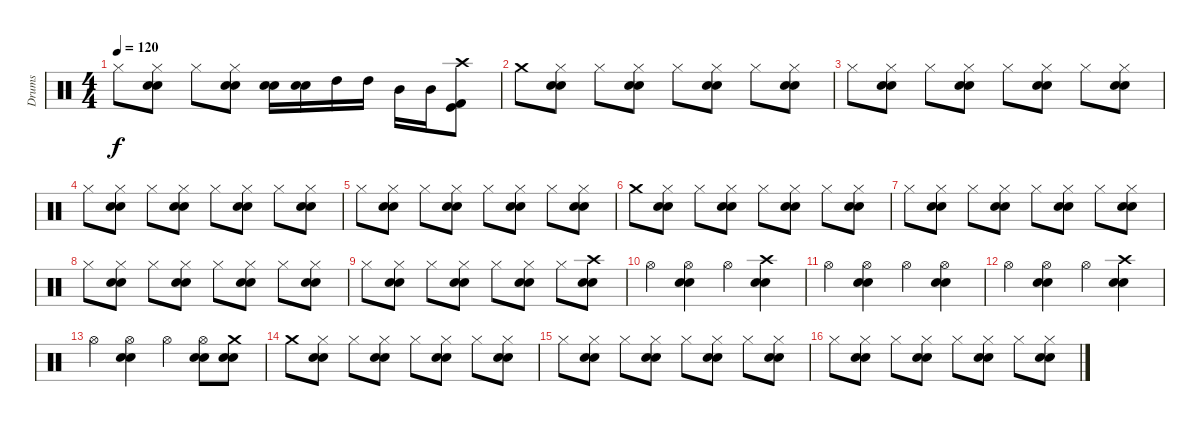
\track ("Drums" "Drums") {instrument percussion}
\staff {score}
\articulation defaults
\ts (4 4)
\tempo 120
\clef neutral
\ks c "Hi-Hat (closed)".8{dy f}
("Hi-Hat (closed)" "Electric Snare (hit)" "Snare (hit) 2").8 "Hi-Hat (closed)".8 ("Hi-Hat (closed)" "Electric Snare (hit)" "Snare (hit) 2").8 ("Electric Snare (hit)" "Snare (hit) 2").16 ("Electric Snare (hit)" "Snare (hit) 2").16 "High Tom (hit)".16 "High Tom (hit)".16 "Mid Tom (hit)".16 "Mid Tom (hit)".16 ("Kick (hit) 2" "Kick (hit)" "Crash high (hit)").8 |
"Crash medium (hit)".8 ("Hi-Hat (closed)" "Electric Snare (hit)" "Snare (hit) 2").8 "Hi-Hat (closed)".8 ("Hi-Hat (closed)" "Electric Snare (hit)" "Snare (hit) 2").8 "Hi-Hat (closed)".8 ("Hi-Hat (closed)" "Electric Snare (hit)" "Snare (hit) 2").8 "Hi-Hat (closed)".8 ("Hi-Hat (closed)" "Electric Snare (hit)" "Snare (hit) 2").8 |
"Hi-Hat (closed)".8 ("Hi-Hat (closed)" "Electric Snare (hit)" "Snare (hit) 2").8 "Hi-Hat (closed)".8 ("Hi-Hat (closed)" "Electric Snare (hit)" "Snare (hit) 2").8 "Hi-Hat (closed)".8 ("Hi-Hat (closed)" "Electric Snare (hit)" "Snare (hit) 2").8 "Hi-Hat (closed)".8 ("Hi-Hat (closed)" "Electric Snare (hit)" "Snare (hit) 2").8 |
"Hi-Hat (closed)".8 ("Hi-Hat (closed)" "Electric Snare (hit)" "Snare (hit) 2").8 "Hi-Hat (closed)".8 ("Hi-Hat (closed)" "Electric Snare (hit)" "Snare (hit) 2").8 "Hi-Hat (closed)".8 ("Hi-Hat (closed)" "Electric Snare (hit)" "Snare (hit) 2").8 "Hi-Hat (closed)".8 ("Hi-Hat (closed)" "Electric Snare (hit)" "Snare (hit) 2").8 |
"Hi-Hat (closed)".8 ("Hi-Hat (closed)" "Electric Snare (hit)" "Snare (hit) 2").8 "Hi-Hat (closed)".8 ("Hi-Hat (closed)" "Electric Snare (hit)" "Snare (hit) 2").8 "Hi-Hat (closed)".8 ("Hi-Hat (closed)" "Electric Snare (hit)" "Snare (hit) 2").8 "Hi-Hat (closed)".8 ("Hi-Hat (closed)" "Electric Snare (hit)" "Snare (hit) 2").8 |
"Crash medium (hit)".8 ("Hi-Hat (closed)" "Electric Snare (hit)" "Snare (hit) 2").8 "Hi-Hat (closed)".8 ("Hi-Hat (closed)" "Electric Snare (hit)" "Snare (hit) 2").8 "Hi-Hat (closed)".8 ("Hi-Hat (closed)" "Electric Snare (hit)" "Snare (hit) 2").8 "Hi-Hat (closed)".8 ("Hi-Hat (closed)" "Electric Snare (hit)" "Snare (hit) 2").8 |
"Hi-Hat (closed)".8 ("Hi-Hat (closed)" "Electric Snare (hit)" "Snare (hit) 2").8 "Hi-Hat (closed)".8 ("Hi-Hat (closed)" "Electric Snare (hit)" "Snare (hit) 2").8 "Hi-Hat (closed)".8 ("Hi-Hat (closed)" "Electric Snare (hit)" "Snare (hit) 2").8 "Hi-Hat (closed)".8 ("Hi-Hat (closed)" "Electric Snare (hit)" "Snare (hit) 2").8 |
"Hi-Hat (closed)".8 ("Hi-Hat (closed)" "Electric Snare (hit)" "Snare (hit) 2").8 "Hi-Hat (closed)".8 ("Hi-Hat (closed)" "Electric Snare (hit)" "Snare (hit) 2").8 "Hi-Hat (closed)".8 ("Hi-Hat (closed)" "Electric Snare (hit)" "Snare (hit) 2").8 "Hi-Hat (closed)".8 ("Hi-Hat (closed)" "Electric Snare (hit)" "Snare (hit) 2").8 |
"Hi-Hat (closed)".8 ("Hi-Hat (closed)" "Electric Snare (hit)" "Snare (hit) 2").8 "Hi-Hat (closed)".8 ("Hi-Hat (closed)" "Electric Snare (hit)" "Snare (hit) 2").8 "Hi-Hat (closed)".8 ("Hi-Hat (closed)" "Electric Snare (hit)" "Snare (hit) 2").8 "Hi-Hat (closed)".8 ("Crash high (hit)" "Electric Snare (hit)" "Snare (hit) 2").8 |
"Hi-Hat (open)".4 ("Hi-Hat (open)" "Electric Snare (hit)" "Snare (hit) 2").4 "Hi-Hat (open)".4 ("Crash high (hit)" "Electric Snare (hit)" "Snare (hit) 2").4 |
"Hi-Hat (open)".4 ("Hi-Hat (open)" "Electric Snare (hit)" "Snare (hit) 2").4 "Hi-Hat (open)".4 ("Hi-Hat (open)" "Electric Snare (hit)" "Snare (hit) 2").4 |
"Hi-Hat (open)".4 ("Hi-Hat (open)" "Electric Snare (hit)" "Snare (hit) 2").4 "Hi-Hat (open)".4 ("Crash high (hit)" "Electric Snare (hit)" "Snare (hit) 2").4 |
"Hi-Hat (open)".4 ("Hi-Hat (open)" "Electric Snare (hit)" "Snare (hit) 2").4 "Hi-Hat (open)".4 ("Hi-Hat (open)" "Electric Snare (hit)" "Snare (hit) 2").8 ("Crash medium (hit)" "Electric Snare (hit)" "Snare (hit) 2").8 |
"Crash medium (hit)".8 ("Hi-Hat (closed)" "Electric Snare (hit)" "Snare (hit) 2").8 "Hi-Hat (closed)".8 ("Hi-Hat (closed)" "Electric Snare (hit)" "Snare (hit) 2").8 "Hi-Hat (closed)".8 ("Hi-Hat (closed)" "Electric Snare (hit)" "Snare (hit) 2").8 "Hi-Hat (closed)".8 ("Hi-Hat (closed)" "Electric Snare (hit)" "Snare (hit) 2").8 |
"Hi-Hat (closed)".8 ("Hi-Hat (closed)" "Electric Snare (hit)" "Snare (hit) 2").8 "Hi-Hat (closed)".8 ("Hi-Hat (closed)" "Electric Snare (hit)" "Snare (hit) 2").8 "Hi-Hat (closed)".8 ("Hi-Hat (closed)" "Electric Snare (hit)" "Snare (hit) 2").8 "Hi-Hat (closed)".8 ("Hi-Hat (closed)" "Electric Snare (hit)" "Snare (hit) 2").8 |
"Hi-Hat (closed)".8 ("Hi-Hat (closed)" "Electric Snare (hit)" "Snare (hit) 2").8 "Hi-Hat (closed)".8 ("Hi-Hat (closed)" "Electric Snare (hit)" "Snare (hit) 2").8 "Hi-Hat (closed)".8 ("Hi-Hat (closed)" "Electric Snare (hit)" "Snare (hit) 2").8 "Hi-Hat (closed)".8 ("Hi-Hat (closed)" "Electric Snare (hit)" "Snare (hit) 2").8
